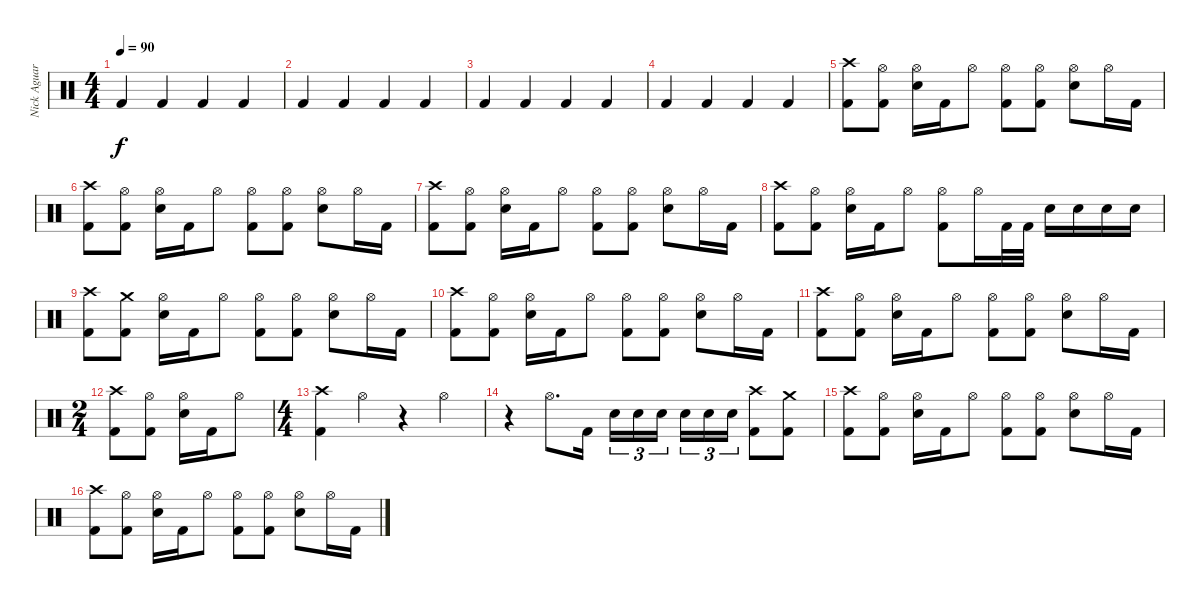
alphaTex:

\track ("Nick Aguara" "Nick Aguar") {instrument percussion}
\staff {score}
\articulation defaults
\ts (4 4)
\tempo 90
\clef neutral
\ks c "Kick (hit) 2".4{dy f} "Kick (hit) 2".4 "Kick (hit) 2".4 "Kick (hit) 2".4
|
"Kick (hit) 2".4 "Kick (hit) 2".4 "Kick (hit) 2".4 "Kick (hit) 2".4 |
"Kick (hit) 2".4 "Kick (hit) 2".4 "Kick (hit) 2".4 "Kick (hit) 2".4 |
"Kick (hit) 2".4 "Kick (hit) 2".4 "Kick (hit) 2".4 "Kick (hit) 2".4 |
("Crash high (hit)" "Kick (hit) 2").8 ("Hi-Hat (open)" "Kick (hit) 2").8 ("Hi-Hat (open)" "Electric Snare (hit)").16 "Kick (hit) 2".16 "Hi-Hat (open)".8 ("Hi-Hat (open)" "Kick (hit) 2").8 ("Hi-Hat (open)" "Kick (hit) 2").8 ("Hi-Hat (open)" "Electric Snare (hit)").8 "Hi-Hat (open)".16 "Kick (hit) 2".16 |
("Crash high (hit)" "Kick (hit) 2").8 ("Hi-Hat (open)" "Kick (hit) 2").8 ("Hi-Hat (open)" "Electric Snare (hit)").16 "Kick (hit) 2".16 "Hi-Hat (open)".8 ("Hi-Hat (open)" "Kick (hit) 2").8 ("Hi-Hat (open)" "Kick (hit) 2").8 ("Hi-Hat (open)" "Electric Snare (hit)").8 "Hi-Hat (open)".16 "Kick (hit) 2".16 |
("Crash high (hit)" "Kick (hit) 2").8 ("Hi-Hat (open)" "Kick (hit) 2").8 ("Hi-Hat (open)" "Electric Snare (hit)").16 "Kick (hit) 2".16 "Hi-Hat (open)".8 ("Hi-Hat (open)" "Kick (hit) 2").8 ("Hi-Hat (open)" "Kick (hit) 2").8 ("Hi-Hat (open)" "Electric Snare (hit)").8 "Hi-Hat (open)".16 "Kick (hit) 2".16 |
("Crash high (hit)" "Kick (hit) 2").8 ("Hi-Hat (open)" "Kick (hit) 2").8 ("Hi-Hat (open)" "Electric Snare (hit)").16 "Kick (hit) 2".16 "Hi-Hat (open)".8 ("Hi-Hat (open)" "Kick (hit) 2").8 "Hi-Hat (open)".16 "Kick (hit) 2".32 "Kick (hit) 2".32 "Electric Snare (hit)".16 "Electric Snare (hit)".16 "Electric Snare (hit)".16 "Electric Snare (hit)".16 |
("Crash high (hit)" "Kick (hit) 2").8 ("Crash medium (hit)" "Kick (hit) 2").8 ("Hi-Hat (open)" "Electric Snare (hit)").16 "Kick (hit) 2".16 "Hi-Hat (open)".8 ("Hi-Hat (open)" "Kick (hit) 2").8 ("Hi-Hat (open)" "Kick (hit) 2").8 ("Hi-Hat (open)" "Electric Snare (hit)").8 "Hi-Hat (open)".16 "Kick (hit) 2".16 |
("Crash high (hit)" "Kick (hit) 2").8 ("Hi-Hat (open)" "Kick (hit) 2").8 ("Hi-Hat (open)" "Electric Snare (hit)").16 "Kick (hit) 2".16 "Hi-Hat (open)".8 ("Hi-Hat (open)" "Kick (hit) 2").8 ("Hi-Hat (open)" "Kick (hit) 2").8 ("Hi-Hat (open)" "Electric Snare (hit)").8 "Hi-Hat (open)".16 "Kick (hit) 2".16 |
("Crash high (hit)" "Kick (hit) 2").8 ("Hi-Hat (open)" "Kick (hit) 2").8 ("Hi-Hat (open)" "Electric Snare (hit)").16 "Kick (hit) 2".16 "Hi-Hat (open)".8 ("Hi-Hat (open)" "Kick (hit) 2").8 ("Hi-Hat (open)" "Kick (hit) 2").8 ("Hi-Hat (open)" "Electric Snare (hit)").8 "Hi-Hat (open)".16 "Kick (hit) 2".16 |
\ts (2 4)
("Crash high (hit)" "Kick (hit) 2").8 ("Hi-Hat (open)" "Kick (hit) 2").8 ("Hi-Hat (open)" "Electric Snare (hit)").16 "Kick (hit) 2".16 "Hi-Hat (open)".8 |
\ts (4 4)
("Crash high (hit)" "Kick (hit) 2").4 "Hi-Hat (open)".4 r.4 "Hi-Hat (open)".4 |
r.4 "Hi-Hat (open)".8{d} "Kick (hit) 2".16 "Electric Snare (hit)".16{tu (3 2)} "Electric Snare (hit)".16{tu (3 2)} "Electric Snare (hit)".16{tu (3 2) beam splitsecondary} "Electric Snare (hit)".16{tu (3 2)} "Electric Snare (hit)".16{tu (3 2)} "Electric Snare (hit)".16{tu (3 2)} ("Crash high (hit)" "Kick (hit) 2").8 ("Crash medium (hit)" "Kick (hit) 2").8 |
("Crash high (hit)" "Kick (hit) 2").8 ("Hi-Hat (open)" "Kick (hit) 2").8 ("Hi-Hat (open)" "Electric Snare (hit)").16 "Kick (hit) 2".16 "Hi-Hat (open)".8 ("Hi-Hat (open)" "Kick (hit) 2").8 ("Hi-Hat (open)" "Kick (hit) 2").8 ("Hi-Hat (open)" "Electric Snare (hit)").8 "Hi-Hat (open)".16 "Kick (hit) 2".16 |
("Crash high (hit)" "Kick (hit) 2").8 ("Hi-Hat (open)" "Kick (hit) 2").8 ("Hi-Hat (open)" "Electric Snare (hit)").16 "Kick (hit) 2".16 "Hi-Hat (open)".8 ("Hi-Hat (open)" "Kick (hit) 2").8 ("Hi-Hat (open)" "Kick (hit) 2").8 ("Hi-Hat (open)" "Electric Snare (hit)").8 "Hi-Hat (open)".16 "Kick (hit) 2".16
